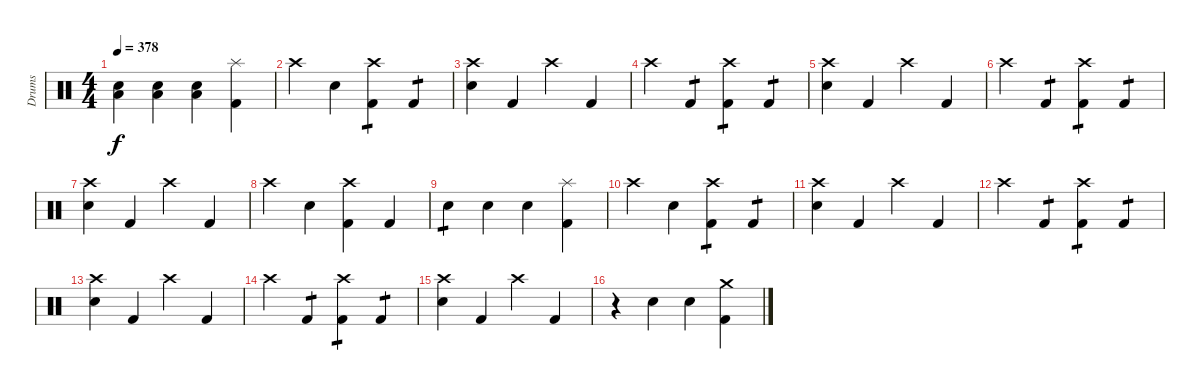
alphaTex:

\track ("Drums" "Drums") {instrument percussion}
\staff {score}
\articulation defaults
\ts (4 4)
\tempo 378
\clef neutral
\ks c
("Low Floor Tom (hit)" "Electric Snare (hit)").4{dy f} ("Low Floor Tom (hit)" "Electric Snare (hit)").4 ("Low Floor Tom (hit)" "Electric Snare (hit)").4 ("Splash (hit)" "Kick (hit) 2").4 |
"Crash high (hit)".4 "Electric Snare (hit)".4 ("Crash high (hit)" "Kick (hit) 2").4{tp 1} "Kick (hit) 2".4{tp 1} |
("Crash high (hit)" "Electric Snare (hit)").4 "Kick (hit) 2".4 "Crash high (hit)".4 "Kick (hit) 2".4 |
"Crash high (hit)".4 "Kick (hit) 2".4{tp 1} ("Crash high (hit)" "Kick (hit) 2").4{tp 1} "Kick (hit) 2".4{tp 1} |
("Crash high (hit)" "Electric Snare (hit)").4 "Kick (hit) 2".4 "Crash high (hit)".4 "Kick (hit) 2".4 |
"Crash high (hit)".4 "Kick (hit) 2".4{tp 1} ("Crash high (hit)" "Kick (hit) 2").4{tp 1} "Kick (hit) 2".4{tp 1} |
("Crash high (hit)" "Electric Snare (hit)").4 "Kick (hit) 2".4 "Crash high (hit)".4 "Kick (hit) 2".4 |
"Crash high (hit)".4 "Electric Snare (hit)".4 ("Crash high (hit)" "Kick (hit) 2").4 "Kick (hit) 2".4 |
"Electric Snare (hit)".4{tp 1} "Electric Snare (hit)".4 "Electric Snare (hit)".4 ("Splash (hit)" "Kick (hit) 2").4 |
"Crash high (hit)".4 "Electric Snare (hit)".4 ("Crash high (hit)" "Kick (hit) 2").4{tp 1} "Kick (hit) 2".4{tp 1} |
("Crash high (hit)" "Electric Snare (hit)").4 "Kick (hit) 2".4 "Crash high (hit)".4 "Kick (hit) 2".4 |
"Crash high (hit)".4 "Kick (hit) 2".4{tp 1} ("Crash high (hit)" "Kick (hit) 2").4{tp 1} "Kick (hit) 2".4{tp 1} |
("Crash high (hit)" "Electric Snare (hit)").4 "Kick (hit) 2".4 "Crash high (hit)".4 "Kick (hit) 2".4 |
"Crash high (hit)".4 "Kick (hit) 2".4{tp 1} ("Crash high (hit)" "Kick (hit) 2").4{tp 1} "Kick (hit) 2".4{tp 1} |
("Crash high (hit)" "Electric Snare (hit)").4 "Kick (hit) 2".4 "Crash high (hit)".4 "Kick (hit) 2".4 |
r.4 "Electric Snare (hit)".4 "Electric Snare (hit)".4 ("Crash medium (hit)" "Kick (hit) 2").4
